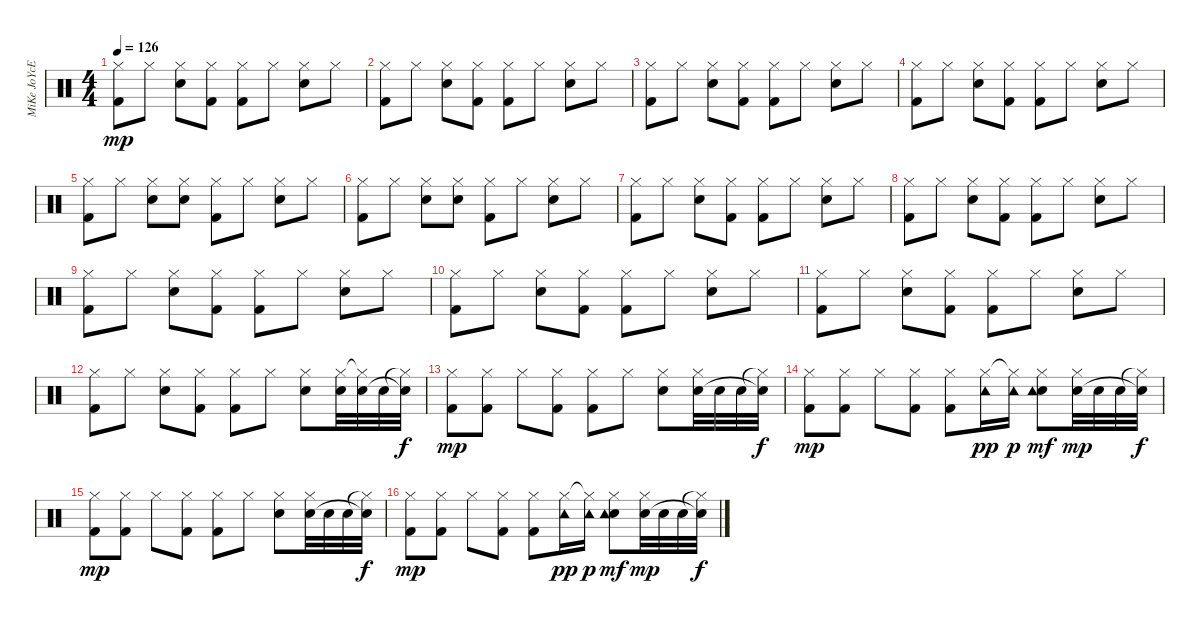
\track ("MiKe JoYcE" "MiKe JoYcE") {instrument percussion}
\staff {score}
\articulation defaults
\ts (4 4)
\tempo 126
\clef neutral
\ks c
("Hi-Hat (closed)" "Kick (hit) 2").8{dy mp} "Hi-Hat (closed)".8 ("Hi-Hat (closed)" "Electric Snare (hit)").8 ("Hi-Hat (closed)" "Kick (hit) 2").8 ("Hi-Hat (closed)" "Kick (hit) 2").8 "Hi-Hat (closed)".8 ("Hi-Hat (closed)" "Electric Snare (hit)").8 "Hi-Hat (closed)".8 |
("Hi-Hat (closed)" "Kick (hit) 2").8 "Hi-Hat (closed)".8 ("Hi-Hat (closed)" "Electric Snare (hit)").8 ("Hi-Hat (closed)" "Kick (hit) 2").8 ("Hi-Hat (closed)" "Kick (hit) 2").8 "Hi-Hat (closed)".8 ("Hi-Hat (closed)" "Electric Snare (hit)").8 "Hi-Hat (closed)".8 |
("Hi-Hat (closed)" "Kick (hit) 2").8 "Hi-Hat (closed)".8 ("Hi-Hat (closed)" "Electric Snare (hit)").8 ("Hi-Hat (closed)" "Kick (hit) 2").8 ("Hi-Hat (closed)" "Kick (hit) 2").8 "Hi-Hat (closed)".8 ("Hi-Hat (closed)" "Electric Snare (hit)").8 "Hi-Hat (closed)".8 |
("Hi-Hat (closed)" "Kick (hit) 2").8 "Hi-Hat (closed)".8 ("Hi-Hat (closed)" "Electric Snare (hit)").8 ("Hi-Hat (closed)" "Kick (hit) 2").8 ("Hi-Hat (closed)" "Kick (hit) 2").8 "Hi-Hat (closed)".8 ("Hi-Hat (closed)" "Electric Snare (hit)").8 "Hi-Hat (closed)".8 |
("Hi-Hat (closed)" "Kick (hit) 2").8 "Hi-Hat (closed)".8 ("Hi-Hat (closed)" "Electric Snare (hit)").8 ("Hi-Hat (closed)" "Electric Snare (hit)").8 ("Hi-Hat (closed)" "Kick (hit) 2").8 "Hi-Hat (closed)".8 ("Hi-Hat (closed)" "Electric Snare (hit)").8 "Hi-Hat (closed)".8 |
("Hi-Hat (closed)" "Kick (hit) 2").8 "Hi-Hat (closed)".8 ("Hi-Hat (closed)" "Electric Snare (hit)").8 ("Hi-Hat (closed)" "Electric Snare (hit)").8 ("Hi-Hat (closed)" "Kick (hit) 2").8 "Hi-Hat (closed)".8 ("Hi-Hat (closed)" "Electric Snare (hit)").8 "Hi-Hat (closed)".8 |
("Hi-Hat (closed)" "Kick (hit) 2").8 "Hi-Hat (closed)".8 ("Hi-Hat (closed)" "Electric Snare (hit)").8 ("Hi-Hat (closed)" "Kick (hit) 2").8 ("Hi-Hat (closed)" "Kick (hit) 2").8 "Hi-Hat (closed)".8 ("Hi-Hat (closed)" "Electric Snare (hit)").8 "Hi-Hat (closed)".8 |
("Hi-Hat (closed)" "Kick (hit) 2").8 "Hi-Hat (closed)".8 ("Hi-Hat (closed)" "Electric Snare (hit)").8 ("Hi-Hat (closed)" "Kick (hit) 2").8 ("Hi-Hat (closed)" "Kick (hit) 2").8 "Hi-Hat (closed)".8 ("Hi-Hat (closed)" "Electric Snare (hit)").8 "Hi-Hat (closed)".8 |
("Hi-Hat (closed)" "Kick (hit) 2").8 "Hi-Hat (closed)".8 ("Hi-Hat (closed)" "Electric Snare (hit)").8 ("Hi-Hat (closed)" "Kick (hit) 2").8 ("Hi-Hat (closed)" "Kick (hit) 2").8 "Hi-Hat (closed)".8 ("Hi-Hat (closed)" "Electric Snare (hit)").8 "Hi-Hat (closed)".8 |
("Hi-Hat (closed)" "Kick (hit) 2").8 "Hi-Hat (closed)".8 ("Hi-Hat (closed)" "Electric Snare (hit)").8 ("Hi-Hat (closed)" "Kick (hit) 2").8 ("Hi-Hat (closed)" "Kick (hit) 2").8 "Hi-Hat (closed)".8 ("Hi-Hat (closed)" "Electric Snare (hit)").8 "Hi-Hat (closed)".8 |
("Hi-Hat (closed)" "Kick (hit) 2").8 "Hi-Hat (closed)".8 ("Hi-Hat (closed)" "Electric Snare (hit)").8 ("Hi-Hat (closed)" "Kick (hit) 2").8 ("Hi-Hat (closed)" "Kick (hit) 2").8 "Hi-Hat (closed)".8 ("Hi-Hat (closed)" "Electric Snare (hit)").8 "Hi-Hat (closed)".8 |
("Hi-Hat (closed)" "Kick (hit) 2").8 "Hi-Hat (closed)".8 ("Hi-Hat (closed)" "Electric Snare (hit)").8 ("Hi-Hat (closed)" "Kick (hit) 2").8 ("Hi-Hat (closed)" "Kick (hit) 2").8 "Hi-Hat (closed)".8 ("Hi-Hat (closed)" "Electric Snare (hit)").8 ("Hi-Hat (closed)" "Electric Snare (hit)").32 ("Hi-Hat (closed)"{t} "Electric Snare (hit)").32 "Electric Snare (hit)".32 ("Hi-Hat (closed)"{t} "Electric Snare (hit)"{t}).32{dy f} |
("Hi-Hat (closed)" "Kick (hit) 2").8{dy mp} ("Hi-Hat (closed)" "Kick (hit) 2").8 "Hi-Hat (closed)".8 ("Hi-Hat (closed)" "Kick (hit) 2").8 ("Hi-Hat (closed)" "Kick (hit) 2").8 "Hi-Hat (closed)".8 ("Hi-Hat (closed)" "Electric Snare (hit)").8 ("Hi-Hat (closed)" "Electric Snare (hit)").32 "Electric Snare (hit)".32 "Electric Snare (hit)".32 ("Hi-Hat (closed)"{t} "Electric Snare (hit)"{t}).32{dy f} |
("Hi-Hat (closed)" "Kick (hit) 2").8{dy mp} ("Hi-Hat (closed)" "Kick (hit) 2").8 "Hi-Hat (closed)".8 ("Hi-Hat (closed)" "Kick (hit) 2").8 ("Hi-Hat (closed)" "Kick (hit) 2").8 ("Hi-Hat (closed)" "Tambourine (hit)").16{dy pp} ("Hi-Hat (closed)"{t} "Tambourine (hit)").16{dy p} ("Hi-Hat (closed)" "Electric Snare (hit)" "Tambourine (hit)").8{dy mf} ("Hi-Hat (closed)" "Electric Snare (hit)").32{dy mp} "Electric Snare (hit)".32 "Electric Snare (hit)".32 ("Hi-Hat (closed)"{t} "Electric Snare (hit)"{t}).32{dy f} |
("Hi-Hat (closed)" "Kick (hit) 2").8{dy mp} ("Hi-Hat (closed)" "Kick (hit) 2").8 "Hi-Hat (closed)".8 ("Hi-Hat (closed)" "Kick (hit) 2").8 ("Hi-Hat (closed)" "Kick (hit) 2").8 "Hi-Hat (closed)".8 ("Hi-Hat (closed)" "Electric Snare (hit)").8 ("Hi-Hat (closed)" "Electric Snare (hit)").32 "Electric Snare (hit)".32 "Electric Snare (hit)".32 ("Hi-Hat (closed)"{t} "Electric Snare (hit)"{t}).32{dy f} |
("Hi-Hat (closed)" "Kick (hit) 2").8{dy mp} ("Hi-Hat (closed)" "Kick (hit) 2").8 "Hi-Hat (closed)".8 ("Hi-Hat (closed)" "Kick (hit) 2").8 ("Hi-Hat (closed)" "Kick (hit) 2").8 ("Hi-Hat (closed)" "Tambourine (hit)").16{dy pp} ("Hi-Hat (closed)"{t} "Tambourine (hit)").16{dy p} ("Hi-Hat (closed)" "Electric Snare (hit)" "Tambourine (hit)").8{dy mf} ("Hi-Hat (closed)" "Electric Snare (hit)").32{dy mp} "Electric Snare (hit)".32 "Electric Snare (hit)".32 ("Hi-Hat (closed)"{t} "Electric Snare (hit)"{t}).32{dy f}
